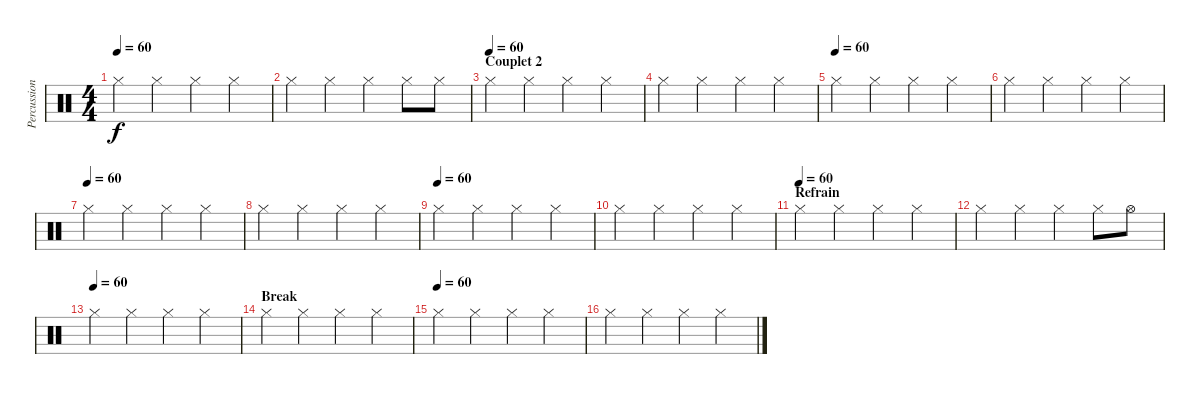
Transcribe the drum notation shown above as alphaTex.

\track ("Percussions" "Percussion") {instrument percussion}
\staff {score}
\articulation defaults
\ts (4 4)
\tempo 60
\clef neutral
\ks c "Hi-Hat (closed)".4{dy f} "Hi-Hat (closed)".4 "Hi-Hat (closed)".4 "Hi-Hat (closed)".4
|
"Hi-Hat (closed)".4 "Hi-Hat (closed)".4 "Hi-Hat (closed)".4 "Hi-Hat (closed)".8 "Hi-Hat (closed)".8 |
\section ("" "Couplet 2")
\tempo (60)
"Hi-Hat (closed)".4 "Hi-Hat (closed)".4 "Hi-Hat (closed)".4 "Hi-Hat (closed)".4 |
"Hi-Hat (closed)".4 "Hi-Hat (closed)".4 "Hi-Hat (closed)".4 "Hi-Hat (closed)".4 |
\tempo (60)
"Hi-Hat (closed)".4 "Hi-Hat (closed)".4 "Hi-Hat (closed)".4 "Hi-Hat (closed)".4 |
"Hi-Hat (closed)".4 "Hi-Hat (closed)".4 "Hi-Hat (closed)".4 "Hi-Hat (closed)".4 |
\tempo (60)
"Hi-Hat (closed)".4 "Hi-Hat (closed)".4 "Hi-Hat (closed)".4 "Hi-Hat (closed)".4 |
"Hi-Hat (closed)".4 "Hi-Hat (closed)".4 "Hi-Hat (closed)".4 "Hi-Hat (closed)".4 |
\tempo (60)
"Hi-Hat (closed)".4 "Hi-Hat (closed)".4 "Hi-Hat (closed)".4 "Hi-Hat (closed)".4 |
"Hi-Hat (closed)".4 "Hi-Hat (closed)".4 "Hi-Hat (closed)".4 "Hi-Hat (closed)".4 |
\section ("" "Refrain")
\tempo (60)
"Hi-Hat (closed)".4 "Hi-Hat (closed)".4 "Hi-Hat (closed)".4 "Hi-Hat (closed)".4 |
"Hi-Hat (closed)".4 "Hi-Hat (closed)".4 "Hi-Hat (closed)".4 "Hi-Hat (closed)".8 "Hi-Hat (open)".8 |
\tempo (60)
"Hi-Hat (closed)".4 "Hi-Hat (closed)".4 "Hi-Hat (closed)".4 "Hi-Hat (closed)".4 |
\section ("" "Break")
"Hi-Hat (closed)".4 "Hi-Hat (closed)".4 "Hi-Hat (closed)".4 "Hi-Hat (closed)".4 |
\tempo (60)
"Hi-Hat (closed)".4 "Hi-Hat (closed)".4 "Hi-Hat (closed)".4 "Hi-Hat (closed)".4 |
"Hi-Hat (closed)".4 "Hi-Hat (closed)".4 "Hi-Hat (closed)".4 "Hi-Hat (closed)".4
